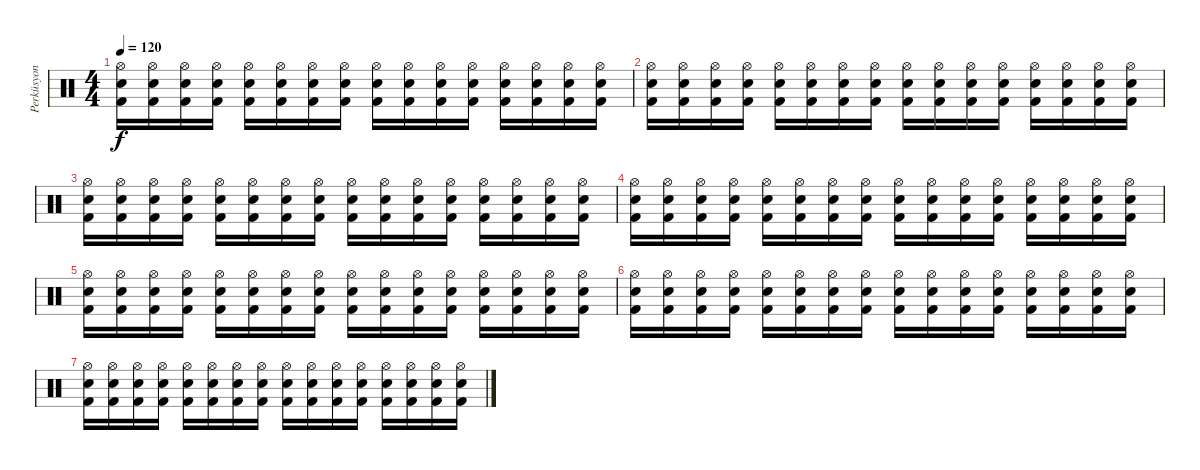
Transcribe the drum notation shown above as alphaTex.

\track ("Perküsyon" "Perküsyon") {instrument percussion}
\staff {score}
\articulation defaults
\ts (4 4)
\tempo 120
\clef neutral
\ks c
("Hi-Hat (open)" "Snare (hit) 2" "Kick (hit) 2").16{dy f} ("Hi-Hat (open)" "Snare (hit) 2" "Kick (hit) 2").16 ("Hi-Hat (open)" "Snare (hit) 2" "Kick (hit) 2").16 ("Hi-Hat (open)" "Snare (hit) 2" "Kick (hit) 2").16 ("Hi-Hat (open)" "Snare (hit) 2" "Kick (hit) 2").16 ("Hi-Hat (open)" "Snare (hit) 2" "Kick (hit) 2").16 ("Hi-Hat (open)" "Snare (hit) 2" "Kick (hit) 2").16 ("Hi-Hat (open)" "Snare (hit) 2" "Kick (hit) 2").16 ("Hi-Hat (open)" "Snare (hit) 2" "Kick (hit) 2").16 ("Hi-Hat (open)" "Snare (hit) 2" "Kick (hit) 2").16 ("Hi-Hat (open)" "Snare (hit) 2" "Kick (hit) 2").16 ("Hi-Hat (open)" "Snare (hit) 2" "Kick (hit) 2").16 ("Hi-Hat (open)" "Snare (hit) 2" "Kick (hit) 2").16 ("Hi-Hat (open)" "Snare (hit) 2" "Kick (hit) 2").16 ("Hi-Hat (open)" "Snare (hit) 2" "Kick (hit) 2").16 ("Hi-Hat (open)" "Snare (hit) 2" "Kick (hit) 2").16 |
("Hi-Hat (open)" "Snare (hit) 2" "Kick (hit) 2").16 ("Hi-Hat (open)" "Snare (hit) 2" "Kick (hit) 2").16 ("Hi-Hat (open)" "Snare (hit) 2" "Kick (hit) 2").16 ("Hi-Hat (open)" "Snare (hit) 2" "Kick (hit) 2").16 ("Hi-Hat (open)" "Snare (hit) 2" "Kick (hit) 2").16 ("Hi-Hat (open)" "Snare (hit) 2" "Kick (hit) 2").16 ("Hi-Hat (open)" "Snare (hit) 2" "Kick (hit) 2").16 ("Hi-Hat (open)" "Snare (hit) 2" "Kick (hit) 2").16 ("Hi-Hat (open)" "Snare (hit) 2" "Kick (hit) 2").16 ("Hi-Hat (open)" "Snare (hit) 2" "Kick (hit) 2").16 ("Hi-Hat (open)" "Snare (hit) 2" "Kick (hit) 2").16 ("Hi-Hat (open)" "Snare (hit) 2" "Kick (hit) 2").16 ("Hi-Hat (open)" "Snare (hit) 2" "Kick (hit) 2").16 ("Hi-Hat (open)" "Snare (hit) 2" "Kick (hit) 2").16 ("Hi-Hat (open)" "Snare (hit) 2" "Kick (hit) 2").16 ("Hi-Hat (open)" "Snare (hit) 2" "Kick (hit) 2").16 |
("Hi-Hat (open)" "Snare (hit) 2" "Kick (hit) 2").16 ("Hi-Hat (open)" "Snare (hit) 2" "Kick (hit) 2").16 ("Hi-Hat (open)" "Snare (hit) 2" "Kick (hit) 2").16 ("Hi-Hat (open)" "Snare (hit) 2" "Kick (hit) 2").16 ("Hi-Hat (open)" "Snare (hit) 2" "Kick (hit) 2").16 ("Hi-Hat (open)" "Snare (hit) 2" "Kick (hit) 2").16 ("Hi-Hat (open)" "Snare (hit) 2" "Kick (hit) 2").16 ("Hi-Hat (open)" "Snare (hit) 2" "Kick (hit) 2").16 ("Hi-Hat (open)" "Snare (hit) 2" "Kick (hit) 2").16 ("Hi-Hat (open)" "Snare (hit) 2" "Kick (hit) 2").16 ("Hi-Hat (open)" "Snare (hit) 2" "Kick (hit) 2").16 ("Hi-Hat (open)" "Snare (hit) 2" "Kick (hit) 2").16 ("Hi-Hat (open)" "Snare (hit) 2" "Kick (hit) 2").16 ("Hi-Hat (open)" "Snare (hit) 2" "Kick (hit) 2").16 ("Hi-Hat (open)" "Snare (hit) 2" "Kick (hit) 2").16 ("Hi-Hat (open)" "Snare (hit) 2" "Kick (hit) 2").16 |
("Hi-Hat (open)" "Snare (hit) 2" "Kick (hit) 2").16 ("Hi-Hat (open)" "Snare (hit) 2" "Kick (hit) 2").16 ("Hi-Hat (open)" "Snare (hit) 2" "Kick (hit) 2").16 ("Hi-Hat (open)" "Snare (hit) 2" "Kick (hit) 2").16 ("Hi-Hat (open)" "Snare (hit) 2" "Kick (hit) 2").16 ("Hi-Hat (open)" "Snare (hit) 2" "Kick (hit) 2").16 ("Hi-Hat (open)" "Snare (hit) 2" "Kick (hit) 2").16 ("Hi-Hat (open)" "Snare (hit) 2" "Kick (hit) 2").16 ("Hi-Hat (open)" "Snare (hit) 2" "Kick (hit) 2").16 ("Hi-Hat (open)" "Snare (hit) 2" "Kick (hit) 2").16 ("Hi-Hat (open)" "Snare (hit) 2" "Kick (hit) 2").16 ("Hi-Hat (open)" "Snare (hit) 2" "Kick (hit) 2").16 ("Hi-Hat (open)" "Snare (hit) 2" "Kick (hit) 2").16 ("Hi-Hat (open)" "Snare (hit) 2" "Kick (hit) 2").16 ("Hi-Hat (open)" "Snare (hit) 2" "Kick (hit) 2").16 ("Hi-Hat (open)" "Snare (hit) 2" "Kick (hit) 2").16 |
("Hi-Hat (open)" "Snare (hit) 2" "Kick (hit) 2").16 ("Hi-Hat (open)" "Snare (hit) 2" "Kick (hit) 2").16 ("Hi-Hat (open)" "Snare (hit) 2" "Kick (hit) 2").16 ("Hi-Hat (open)" "Snare (hit) 2" "Kick (hit) 2").16 ("Hi-Hat (open)" "Snare (hit) 2" "Kick (hit) 2").16 ("Hi-Hat (open)" "Snare (hit) 2" "Kick (hit) 2").16 ("Hi-Hat (open)" "Snare (hit) 2" "Kick (hit) 2").16 ("Hi-Hat (open)" "Snare (hit) 2" "Kick (hit) 2").16 ("Hi-Hat (open)" "Snare (hit) 2" "Kick (hit) 2").16 ("Hi-Hat (open)" "Snare (hit) 2" "Kick (hit) 2").16 ("Hi-Hat (open)" "Snare (hit) 2" "Kick (hit) 2").16 ("Hi-Hat (open)" "Snare (hit) 2" "Kick (hit) 2").16 ("Hi-Hat (open)" "Snare (hit) 2" "Kick (hit) 2").16 ("Hi-Hat (open)" "Snare (hit) 2" "Kick (hit) 2").16 ("Hi-Hat (open)" "Snare (hit) 2" "Kick (hit) 2").16 ("Hi-Hat (open)" "Snare (hit) 2" "Kick (hit) 2").16 |
("Hi-Hat (open)" "Snare (hit) 2" "Kick (hit) 2").16 ("Hi-Hat (open)" "Snare (hit) 2" "Kick (hit) 2").16 ("Hi-Hat (open)" "Snare (hit) 2" "Kick (hit) 2").16 ("Hi-Hat (open)" "Snare (hit) 2" "Kick (hit) 2").16 ("Hi-Hat (open)" "Snare (hit) 2" "Kick (hit) 2").16 ("Hi-Hat (open)" "Snare (hit) 2" "Kick (hit) 2").16 ("Hi-Hat (open)" "Snare (hit) 2" "Kick (hit) 2").16 ("Hi-Hat (open)" "Snare (hit) 2" "Kick (hit) 2").16 ("Hi-Hat (open)" "Snare (hit) 2" "Kick (hit) 2").16 ("Hi-Hat (open)" "Snare (hit) 2" "Kick (hit) 2").16 ("Hi-Hat (open)" "Snare (hit) 2" "Kick (hit) 2").16 ("Hi-Hat (open)" "Snare (hit) 2" "Kick (hit) 2").16 ("Hi-Hat (open)" "Snare (hit) 2" "Kick (hit) 2").16 ("Hi-Hat (open)" "Snare (hit) 2" "Kick (hit) 2").16 ("Hi-Hat (open)" "Snare (hit) 2" "Kick (hit) 2").16 ("Hi-Hat (open)" "Snare (hit) 2" "Kick (hit) 2").16 |
("Hi-Hat (open)" "Snare (hit) 2" "Kick (hit) 2").16 ("Hi-Hat (open)" "Snare (hit) 2" "Kick (hit) 2").16 ("Hi-Hat (open)" "Snare (hit) 2" "Kick (hit) 2").16 ("Hi-Hat (open)" "Snare (hit) 2" "Kick (hit) 2").16 ("Hi-Hat (open)" "Snare (hit) 2" "Kick (hit) 2").16 ("Hi-Hat (open)" "Snare (hit) 2" "Kick (hit) 2").16 ("Hi-Hat (open)" "Snare (hit) 2" "Kick (hit) 2").16 ("Hi-Hat (open)" "Snare (hit) 2" "Kick (hit) 2").16 ("Hi-Hat (open)" "Snare (hit) 2" "Kick (hit) 2").16 ("Hi-Hat (open)" "Snare (hit) 2" "Kick (hit) 2").16 ("Hi-Hat (open)" "Snare (hit) 2" "Kick (hit) 2").16 ("Hi-Hat (open)" "Snare (hit) 2" "Kick (hit) 2").16 ("Hi-Hat (open)" "Snare (hit) 2" "Kick (hit) 2").16 ("Hi-Hat (open)" "Snare (hit) 2" "Kick (hit) 2").16 ("Hi-Hat (open)" "Snare (hit) 2" "Kick (hit) 2").16 ("Hi-Hat (open)" "Snare (hit) 2" "Kick (hit) 2").16
